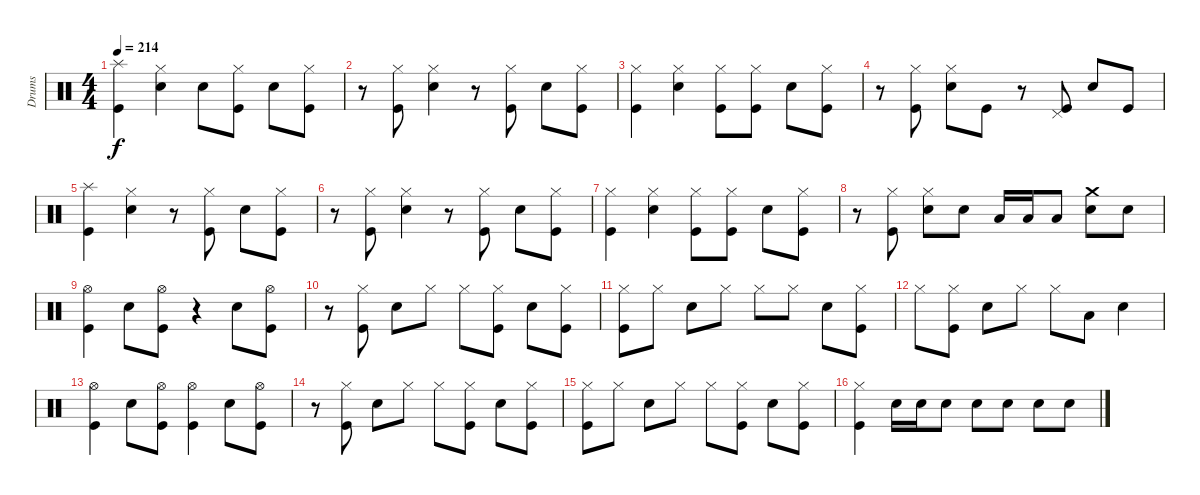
\track ("Drums" "Drums") {instrument percussion}
\staff {score}
\articulation defaults
\ts (4 4)
\tempo 214
\clef neutral
\ks c
("Splash (hit)" "Kick (hit)").4{dy f} ("Hi-Hat (closed)" "Snare (hit) 2").4 "Snare (hit) 2".8 ("Hi-Hat (closed)" "Kick (hit)").8 "Snare (hit) 2".8 ("Hi-Hat (closed)" "Kick (hit)").8 |
r.8 ("Hi-Hat (closed)" "Kick (hit)").8 ("Hi-Hat (closed)" "Snare (hit) 2").4 r.8 ("Hi-Hat (closed)" "Kick (hit)").8 "Snare (hit) 2".8 ("Hi-Hat (closed)" "Kick (hit)").8 |
("Hi-Hat (closed)" "Kick (hit)").4 ("Hi-Hat (closed)" "Snare (hit) 2").4 ("Hi-Hat (closed)" "Kick (hit)").8 ("Hi-Hat (closed)" "Kick (hit)").8 "Snare (hit) 2".8 ("Hi-Hat (closed)" "Kick (hit)").8 |
r.8 ("Hi-Hat (closed)" "Kick (hit)").8 ("Hi-Hat (closed)" "Snare (hit) 2").8 "Kick (hit)".8 r.8 ("Pedal Hi-Hat (hit)" "Kick (hit)").8 "Snare (hit) 2".8 "Kick (hit)".8 |
("Splash (hit)" "Kick (hit)").4 ("Hi-Hat (closed)" "Snare (hit) 2").4 r.8 ("Hi-Hat (closed)" "Kick (hit)").8 "Snare (hit) 2".8 ("Hi-Hat (closed)" "Kick (hit)").8 |
r.8 ("Hi-Hat (closed)" "Kick (hit)").8 ("Hi-Hat (closed)" "Snare (hit) 2").4 r.8 ("Hi-Hat (closed)" "Kick (hit)").8 "Snare (hit) 2".8 ("Hi-Hat (closed)" "Kick (hit)").8 |
("Hi-Hat (closed)" "Kick (hit)").4 ("Hi-Hat (closed)" "Snare (hit) 2").4 ("Hi-Hat (closed)" "Kick (hit)").8 ("Hi-Hat (closed)" "Kick (hit)").8 "Snare (hit) 2".8 ("Hi-Hat (closed)" "Kick (hit)").8 |
r.8 ("Hi-Hat (closed)" "Kick (hit)").8 ("Hi-Hat (closed)" "Snare (hit) 2").8 "Snare (hit) 2".8 "Low Tom (hit)".16 "Low Tom (hit)".16 "Low Tom (hit)".8 ("Crash medium (hit)" "Snare (hit) 2").8 "Snare (hit) 2".8 |
("Hi-Hat (open)" "Kick (hit)").4 "Snare (hit) 2".8 ("Hi-Hat (open)" "Kick (hit)").8 r.4 "Snare (hit) 2".8 ("Hi-Hat (open)" "Kick (hit)").8 |
r.8 ("Hi-Hat (closed)" "Kick (hit)").8 "Snare (hit) 2".8 "Hi-Hat (closed)".8 "Hi-Hat (closed)".8 ("Hi-Hat (closed)" "Kick (hit)").8 "Snare (hit) 2".8 ("Hi-Hat (closed)" "Kick (hit)").8 |
("Hi-Hat (closed)" "Kick (hit)").8 "Hi-Hat (closed)".8 "Snare (hit) 2".8 "Hi-Hat (closed)".8 "Hi-Hat (closed)".8 "Hi-Hat (closed)".8 "Snare (hit) 2".8 ("Hi-Hat (closed)" "Kick (hit)").8 |
"Hi-Hat (closed)".8 ("Hi-Hat (closed)" "Kick (hit)").8 "Snare (hit) 2".8 "Hi-Hat (closed)".8 "Hi-Hat (closed)".8 "Low Tom (hit)".8 "Snare (hit) 2".4 |
("Hi-Hat (open)" "Kick (hit)").4 "Snare (hit) 2".8 ("Hi-Hat (open)" "Kick (hit)").8 ("Hi-Hat (open)" "Kick (hit)").4 "Snare (hit) 2".8 ("Hi-Hat (open)" "Kick (hit)").8 |
r.8 ("Hi-Hat (closed)" "Kick (hit)").8 "Snare (hit) 2".8 "Hi-Hat (closed)".8 "Hi-Hat (closed)".8 ("Hi-Hat (closed)" "Kick (hit)").8 "Snare (hit) 2".8 ("Hi-Hat (closed)" "Kick (hit)").8 |
("Hi-Hat (closed)" "Kick (hit)").8 "Hi-Hat (closed)".8 "Snare (hit) 2".8 "Hi-Hat (closed)".8 "Hi-Hat (closed)".8 ("Hi-Hat (closed)" "Kick (hit)").8 "Snare (hit) 2".8 ("Hi-Hat (closed)" "Kick (hit)").8 |
("Hi-Hat (closed)" "Kick (hit)").4 "Snare (hit) 2".16 "Snare (hit) 2".16 "Snare (hit) 2".8 "Snare (hit) 2".8 "Snare (hit) 2".8 "Snare (hit) 2".8 "Snare (hit) 2".8
